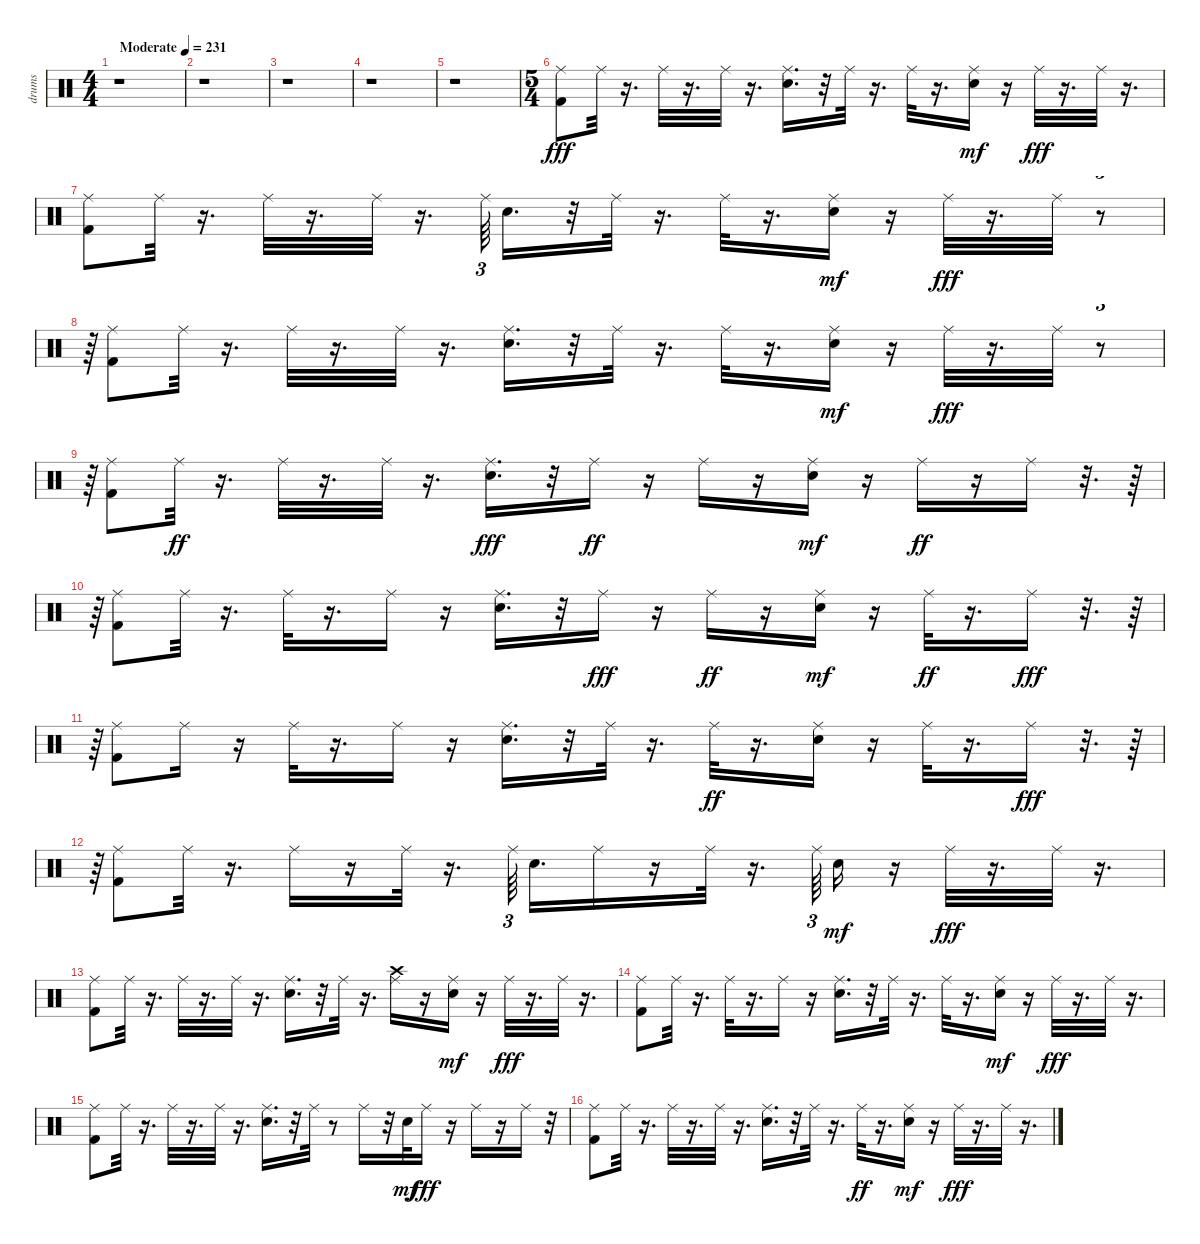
\track ("drums               " "drums     ") {instrument percussion}
\staff {score}
\articulation defaults
\ts (4 4)
\tempo (231 "Moderate")
\clef neutral
\ks c
r.1{dy fff} |
r.1 |
r.1 |
r.1 |
r.1 |
\ts (5 4)
("Kick (hit) 2" "Ride (middle)").8 "Ride (middle)".32 r.16{d} "Ride (middle)".32 r.16{d} "Ride (middle)".32 r.16{d} ("Ride (middle)" "Snare (hit) 2").16{d} r.32 "Ride (middle)".32 r.16{d} "Ride (middle)".32 r.16{d} ("Ride (middle)" "Snare (hit) 2").16{dy mf} r.16 "Ride (middle)".32{dy fff} r.16{d} "Ride (middle)".32 r.16{d} |
("Kick (hit) 2" "Ride (middle)").8 "Ride (middle)".32 r.16{d} "Ride (middle)".32 r.16{d} "Ride (middle)".32 r.16{d} "Ride (middle)".64{tu (3 2)} "Snare (hit) 2".16{d} r.32 "Ride (middle)".32 r.16{d} "Ride (middle)".32 r.16{d} ("Ride (middle)" "Snare (hit) 2").16{dy mf} r.16 "Ride (middle)".32{dy fff} r.16{d} "Ride (middle)".32 r.8{tu (3 2)} |
r.64{tu (3 2)} ("Kick (hit) 2" "Ride (middle)").8 "Ride (middle)".32 r.16{d} "Ride (middle)".32 r.16{d} "Ride (middle)".32 r.16{d} ("Ride (middle)" "Snare (hit) 2").16{d} r.32 "Ride (middle)".32 r.16{d} "Ride (middle)".32 r.16{d} ("Ride (middle)" "Snare (hit) 2").16{dy mf} r.16 "Ride (middle)".32{dy fff} r.16{d} "Ride (middle)".32 r.8{tu (3 2)} |
r.64{tu (3 2)} ("Kick (hit) 2" "Ride (middle)").8 "Ride (middle)".32{dy ff} r.16{d} "Ride (middle)".32 r.16{d} "Ride (middle)".32 r.16{d} ("Ride (middle)" "Snare (hit) 2").16{d dy fff} r.32 "Ride (middle)".16{dy ff} r.16 "Ride (middle)".16 r.16 ("Ride (middle)" "Snare (hit) 2").16{dy mf} r.16 "Ride (middle)".16{dy ff} r.16 "Ride (middle)".16 r.32{d} r.64 |
r.64{tu (3 2)} ("Kick (hit) 2" "Ride (middle)").8 "Ride (middle)".32 r.16{d} "Ride (middle)".32 r.16{d} "Ride (middle)".16 r.16 ("Snare (hit) 2" "Ride (middle)").16{d} r.32 "Ride (middle)".16{dy fff} r.16 "Ride (middle)".16{dy ff} r.16 ("Ride (middle)" "Snare (hit) 2").16{dy mf} r.16 "Ride (middle)".32{dy ff} r.16{d} "Ride (middle)".16{dy fff} r.32{d} r.64 |
r.64{tu (3 2)} ("Kick (hit) 2" "Ride (middle)").8 "Ride (middle)".16 r.16 "Ride (middle)".32 r.16{d} "Ride (middle)".16 r.16 ("Snare (hit) 2" "Ride (middle)").16{d} r.32 "Ride (middle)".32 r.16{d} "Ride (middle)".32{dy ff} r.16{d} ("Snare (hit) 2" "Ride (middle)").16 r.16 "Ride (middle)".32 r.16{d} "Ride (middle)".16{dy fff} r.32{d} r.64 |
r.64{tu (3 2)} ("Kick (hit) 2" "Ride (middle)").8 "Ride (middle)".32 r.16{d} "Ride (middle)".16 r.16 "Ride (middle)".32 r.16{d} "Ride (middle)".64{tu (3 2)} "Snare (hit) 2".16{d} "Ride (middle)".16 r.16 "Ride (middle)".32 r.16{d} "Ride (middle)".64{tu (3 2)} "Snare (hit) 2".16{dy mf} r.16 "Ride (middle)".32{dy fff} r.16{d} "Ride (middle)".32 r.16{d} |
("Kick (hit) 2" "Ride (middle)").8 "Ride (middle)".32 r.16{d} "Ride (middle)".32 r.16{d} "Ride (middle)".32 r.16{d} ("Ride (middle)" "Snare (hit) 2").16{d} r.32 "Ride (middle)".32 r.16{d} ("Ride (middle)" "Crash high (hit)").16 r.16 ("Ride (middle)" "Snare (hit) 2").16{dy mf} r.16 "Ride (middle)".32{dy fff} r.16{d} "Ride (middle)".32 r.16{d} |
("Kick (hit) 2" "Ride (middle)").8 "Ride (middle)".32 r.16{d} "Ride (middle)".32 r.16{d} "Ride (middle)".16 r.16 ("Snare (hit) 2" "Ride (middle)").16{d} r.32 "Ride (middle)".32 r.16{d} "Ride (middle)".32 r.16{d} ("Ride (middle)" "Snare (hit) 2").16{dy mf} r.16 "Ride (middle)".32{dy fff} r.16{d} "Ride (middle)".32 r.16{d} |
("Kick (hit) 2" "Ride (middle)").8 "Ride (middle)".32 r.16{d} "Ride (middle)".32 r.16{d} "Ride (middle)".32 r.16{d} ("Ride (middle)" "Snare (hit) 2").16{d} r.32 "Ride (middle)".32 r.8 "Ride (middle)".16 r.32 "Snare (hit) 2".32{dy mf} "Ride (middle)".16{dy fff} r.16 "Ride (middle)".16 r.16 "Ride (middle)".16 r.32 |
("Kick (hit) 2" "Ride (middle)").8 "Ride (middle)".32 r.16{d} "Ride (middle)".32 r.16{d} "Ride (middle)".32 r.16{d} ("Snare (hit) 2" "Ride (middle)").16{d} r.32 "Ride (middle)".32 r.16{d} "Ride (middle)".32{dy ff} r.16{d} ("Ride (middle)" "Snare (hit) 2").16{dy mf} r.16 "Ride (middle)".32{dy fff} r.16{d} "Ride (middle)".32 r.16{d}
